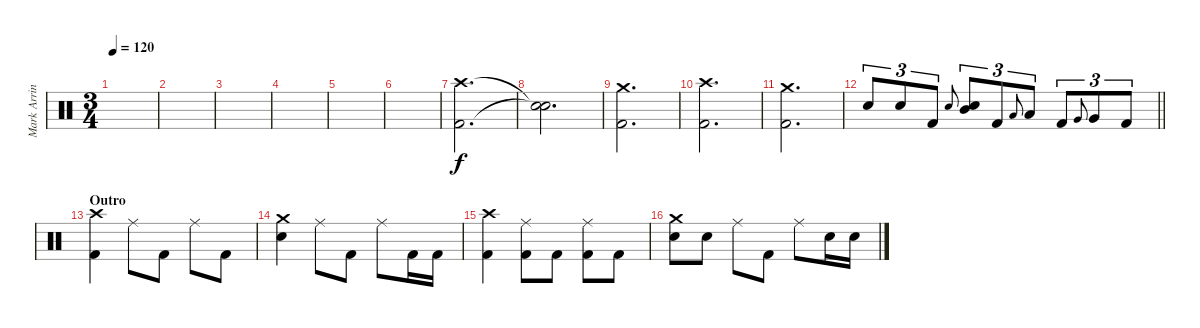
\track ("Mark Arrington Drums" "Mark Arrin") {instrument percussion}
\staff {score}
\articulation defaults
\ts (3 4)
\tempo 120
\clef neutral
\ks c
|
|
|
|
|
|
("Crash high (hit)" "Kick (hit) 2").2{d} |
("Snare (hit)"{t} "Snare (hit)"{t}).2{d} |
("Crash medium (hit)" "Kick (hit) 2").2{d} |
("Crash high (hit)" "Kick (hit) 2").2{d} |
("Crash medium (hit)" "Kick (hit) 2").2{d} |
\barLineRight lightlight "Electric Snare (hit)".8{tu (3 2)} "Electric Snare (hit)".8{tu (3 2)} "Kick (hit) 2".8{tu (3 2)} "Electric Snare (hit)".8{gr onbeat}
("Mid Tom (hit)" "Electric Snare (hit)").8{tu (3 2)} "Kick (hit) 2".8{tu (3 2)} "Low Tom (hit)".8{gr onbeat} "Low Tom (hit)".8{tu (3 2)} "Kick (hit) 2".8{tu (3 2)} "Very Low Tom (hit)".8{gr onbeat} "Very Low Tom (hit)".8{tu (3 2)} "Kick (hit) 2".8{tu (3 2)} |
\section ("" "Outro")
("Crash high (hit)" "Kick (hit) 2").4 "Ride (middle)".8 "Kick (hit) 2".8 "Ride (middle)".8 "Kick (hit) 2".8 |
("Crash medium (hit)" "Electric Snare (hit)").4 "Ride (middle)".8 "Kick (hit) 2".8 "Ride (middle)".8 "Kick (hit) 2".16 "Kick (hit) 2".16 |
("Crash high (hit)" "Kick (hit) 2").4 ("Ride (middle)" "Kick (hit) 2").8 "Kick (hit) 2".8 ("Ride (middle)" "Kick (hit) 2").8 "Kick (hit) 2".8 |
("Crash medium (hit)" "Electric Snare (hit)").8 "Electric Snare (hit)".8 "Ride (middle)".8 "Kick (hit) 2".8 "Ride (middle)".8 "Electric Snare (hit)".16 "Electric Snare (hit)".16
